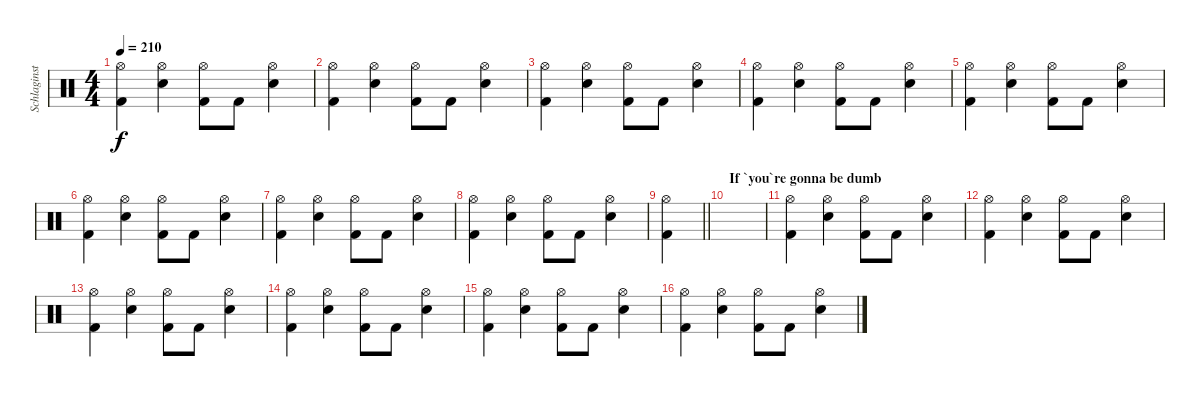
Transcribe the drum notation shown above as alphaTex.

\track ("Schlaginstrumente - Auswahl" "Schlaginst") {instrument percussion}
\staff {score}
\articulation defaults
\ts (4 4)
\tempo 210
\clef neutral
\ks c
("Hi-Hat (open)" "Kick (hit) 2").4{dy f} ("Hi-Hat (open)" "Electric Snare (hit)").4 ("Hi-Hat (open)" "Kick (hit) 2").8 "Kick (hit) 2".8 ("Hi-Hat (open)" "Electric Snare (hit)").4 |
("Hi-Hat (open)" "Kick (hit) 2").4 ("Hi-Hat (open)" "Electric Snare (hit)").4 ("Hi-Hat (open)" "Kick (hit) 2").8 "Kick (hit) 2".8 ("Hi-Hat (open)" "Electric Snare (hit)").4 |
("Hi-Hat (open)" "Kick (hit) 2").4 ("Hi-Hat (open)" "Electric Snare (hit)").4 ("Hi-Hat (open)" "Kick (hit) 2").8 "Kick (hit) 2".8 ("Hi-Hat (open)" "Electric Snare (hit)").4 |
("Hi-Hat (open)" "Kick (hit) 2").4 ("Hi-Hat (open)" "Electric Snare (hit)").4 ("Hi-Hat (open)" "Kick (hit) 2").8 "Kick (hit) 2".8 ("Hi-Hat (open)" "Electric Snare (hit)").4 |
("Hi-Hat (open)" "Kick (hit) 2").4 ("Hi-Hat (open)" "Electric Snare (hit)").4 ("Hi-Hat (open)" "Kick (hit) 2").8 "Kick (hit) 2".8 ("Hi-Hat (open)" "Electric Snare (hit)").4 |
("Hi-Hat (open)" "Kick (hit) 2").4 ("Hi-Hat (open)" "Electric Snare (hit)").4 ("Hi-Hat (open)" "Kick (hit) 2").8 "Kick (hit) 2".8 ("Hi-Hat (open)" "Electric Snare (hit)").4 |
("Hi-Hat (open)" "Kick (hit) 2").4 ("Hi-Hat (open)" "Electric Snare (hit)").4 ("Hi-Hat (open)" "Kick (hit) 2").8 "Kick (hit) 2".8 ("Hi-Hat (open)" "Electric Snare (hit)").4 |
("Hi-Hat (open)" "Kick (hit) 2").4 ("Hi-Hat (open)" "Electric Snare (hit)").4 ("Hi-Hat (open)" "Kick (hit) 2").8 "Kick (hit) 2".8 ("Hi-Hat (open)" "Electric Snare (hit)").4 |
\barLineRight lightlight
("Hi-Hat (open)" "Kick (hit) 2").4 |
\section ("" "If `you`re gonna be dumb")
|
("Hi-Hat (open)" "Kick (hit) 2").4 ("Hi-Hat (open)" "Electric Snare (hit)").4 ("Hi-Hat (open)" "Kick (hit) 2").8 "Kick (hit) 2".8 ("Hi-Hat (open)" "Electric Snare (hit)").4 |
("Hi-Hat (open)" "Kick (hit) 2").4 ("Hi-Hat (open)" "Electric Snare (hit)").4 ("Hi-Hat (open)" "Kick (hit) 2").8 "Kick (hit) 2".8 ("Hi-Hat (open)" "Electric Snare (hit)").4 |
("Hi-Hat (open)" "Kick (hit) 2").4 ("Hi-Hat (open)" "Electric Snare (hit)").4 ("Hi-Hat (open)" "Kick (hit) 2").8 "Kick (hit) 2".8 ("Hi-Hat (open)" "Electric Snare (hit)").4 |
("Hi-Hat (open)" "Kick (hit) 2").4 ("Hi-Hat (open)" "Electric Snare (hit)").4 ("Hi-Hat (open)" "Kick (hit) 2").8 "Kick (hit) 2".8 ("Hi-Hat (open)" "Electric Snare (hit)").4 |
("Hi-Hat (open)" "Kick (hit) 2").4 ("Hi-Hat (open)" "Electric Snare (hit)").4 ("Hi-Hat (open)" "Kick (hit) 2").8 "Kick (hit) 2".8 ("Hi-Hat (open)" "Electric Snare (hit)").4 |
("Hi-Hat (open)" "Kick (hit) 2").4 ("Hi-Hat (open)" "Electric Snare (hit)").4 ("Hi-Hat (open)" "Kick (hit) 2").8 "Kick (hit) 2".8 ("Hi-Hat (open)" "Electric Snare (hit)").4
